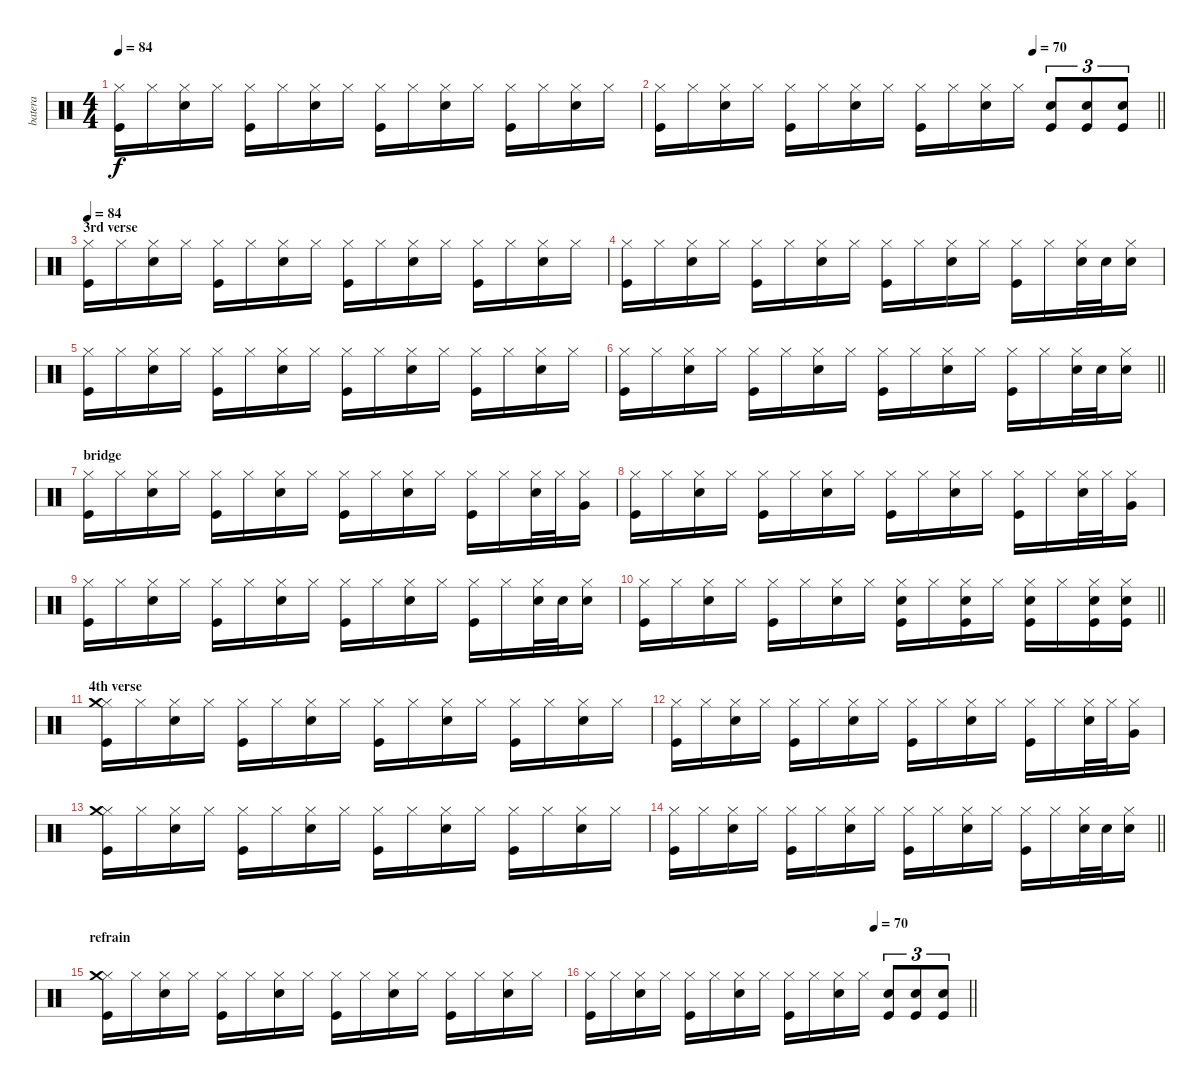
\track ("batera" "batera") {solo instrument percussion}
\staff {score}
\articulation defaults
\ts (4 4)
\tempo 84
\clef neutral
\ks c
("Hi-Hat (closed)" "Kick (hit)").16{dy f} "Hi-Hat (closed)".16 ("Hi-Hat (closed)" "Snare (hit) 2").16 "Hi-Hat (closed)".16 ("Hi-Hat (closed)" "Kick (hit)").16 "Hi-Hat (closed)".16 ("Hi-Hat (closed)" "Snare (hit) 2").16 "Hi-Hat (closed)".16 ("Hi-Hat (closed)" "Kick (hit)").16 "Hi-Hat (closed)".16 ("Hi-Hat (closed)" "Snare (hit) 2").16 "Hi-Hat (closed)".16 ("Hi-Hat (closed)" "Kick (hit)").16 "Hi-Hat (closed)".16 ("Hi-Hat (closed)" "Snare (hit) 2").16 "Hi-Hat (closed)".16 |
\tempo (70 0.75)
\barLineRight lightlight
("Hi-Hat (closed)" "Kick (hit)").16 "Hi-Hat (closed)".16 ("Hi-Hat (closed)" "Snare (hit) 2").16 "Hi-Hat (closed)".16 ("Hi-Hat (closed)" "Kick (hit)").16 "Hi-Hat (closed)".16 ("Hi-Hat (closed)" "Snare (hit) 2").16 "Hi-Hat (closed)".16 ("Hi-Hat (closed)" "Kick (hit)").16 "Hi-Hat (closed)".16 ("Hi-Hat (closed)" "Snare (hit) 2").16 "Hi-Hat (closed)".16 ("Snare (hit) 2" "Kick (hit)").8{tu (3 2)} ("Snare (hit) 2" "Kick (hit)").8{tu (3 2)} ("Snare (hit) 2" "Kick (hit)").8{tu (3 2)} |
\section ("" "3rd verse")
\tempo 84
("Hi-Hat (closed)" "Kick (hit)").16 "Hi-Hat (closed)".16 ("Hi-Hat (closed)" "Snare (hit) 2").16 "Hi-Hat (closed)".16 ("Hi-Hat (closed)" "Kick (hit)").16 "Hi-Hat (closed)".16 ("Hi-Hat (closed)" "Snare (hit) 2").16 "Hi-Hat (closed)".16 ("Hi-Hat (closed)" "Kick (hit)").16 "Hi-Hat (closed)".16 ("Hi-Hat (closed)" "Snare (hit) 2").16 "Hi-Hat (closed)".16 ("Hi-Hat (closed)" "Kick (hit)").16 "Hi-Hat (closed)".16 ("Hi-Hat (closed)" "Snare (hit) 2").16 "Hi-Hat (closed)".16 |
("Hi-Hat (closed)" "Kick (hit)").16 "Hi-Hat (closed)".16 ("Hi-Hat (closed)" "Snare (hit) 2").16 "Hi-Hat (closed)".16 ("Hi-Hat (closed)" "Kick (hit)").16 "Hi-Hat (closed)".16 ("Hi-Hat (closed)" "Snare (hit) 2").16 "Hi-Hat (closed)".16 ("Hi-Hat (closed)" "Kick (hit)").16 "Hi-Hat (closed)".16 ("Hi-Hat (closed)" "Snare (hit) 2").16 "Hi-Hat (closed)".16 ("Hi-Hat (closed)" "Kick (hit)").16 "Hi-Hat (closed)".16 ("Hi-Hat (closed)" "Snare (hit) 2").32 "Snare (hit) 2".32 ("Hi-Hat (closed)" "Snare (hit) 2").16 |
("Hi-Hat (closed)" "Kick (hit)").16 "Hi-Hat (closed)".16 ("Hi-Hat (closed)" "Snare (hit) 2").16 "Hi-Hat (closed)".16 ("Hi-Hat (closed)" "Kick (hit)").16 "Hi-Hat (closed)".16 ("Hi-Hat (closed)" "Snare (hit) 2").16 "Hi-Hat (closed)".16 ("Hi-Hat (closed)" "Kick (hit)").16 "Hi-Hat (closed)".16 ("Hi-Hat (closed)" "Snare (hit) 2").16 "Hi-Hat (closed)".16 ("Hi-Hat (closed)" "Kick (hit)").16 "Hi-Hat (closed)".16 ("Hi-Hat (closed)" "Snare (hit) 2").16 "Hi-Hat (closed)".16 |
\barLineRight lightlight
("Hi-Hat (closed)" "Kick (hit)").16 "Hi-Hat (closed)".16 ("Hi-Hat (closed)" "Snare (hit) 2").16 "Hi-Hat (closed)".16 ("Hi-Hat (closed)" "Kick (hit)").16 "Hi-Hat (closed)".16 ("Hi-Hat (closed)" "Snare (hit) 2").16 "Hi-Hat (closed)".16 ("Hi-Hat (closed)" "Kick (hit)").16 "Hi-Hat (closed)".16 ("Hi-Hat (closed)" "Snare (hit) 2").16 "Hi-Hat (closed)".16 ("Hi-Hat (closed)" "Kick (hit)").16 "Hi-Hat (closed)".16 ("Hi-Hat (closed)" "Snare (hit) 2").32 "Snare (hit) 2".32 ("Hi-Hat (closed)" "Snare (hit) 2").16 |
\section ("" "bridge")
("Hi-Hat (closed)" "Kick (hit)").16 "Hi-Hat (closed)".16 ("Hi-Hat (closed)" "Snare (hit) 2").16 "Hi-Hat (closed)".16 ("Hi-Hat (closed)" "Kick (hit)").16 "Hi-Hat (closed)".16 ("Hi-Hat (closed)" "Snare (hit) 2").16 "Hi-Hat (closed)".16 ("Hi-Hat (closed)" "Kick (hit)").16 "Hi-Hat (closed)".16 ("Hi-Hat (closed)" "Snare (hit) 2").16 "Hi-Hat (closed)".16 ("Hi-Hat (closed)" "Kick (hit)").16 "Hi-Hat (closed)".16 ("Hi-Hat (closed)" "Snare (hit) 2").32 "Hi-Hat (closed)".32 ("Hi-Hat (closed)" "Very Low Tom (hit)").16 |
("Hi-Hat (closed)" "Kick (hit)").16 "Hi-Hat (closed)".16 ("Hi-Hat (closed)" "Snare (hit) 2").16 "Hi-Hat (closed)".16 ("Hi-Hat (closed)" "Kick (hit)").16 "Hi-Hat (closed)".16 ("Hi-Hat (closed)" "Snare (hit) 2").16 "Hi-Hat (closed)".16 ("Hi-Hat (closed)" "Kick (hit)").16 "Hi-Hat (closed)".16 ("Hi-Hat (closed)" "Snare (hit) 2").16 "Hi-Hat (closed)".16 ("Hi-Hat (closed)" "Kick (hit)").16 "Hi-Hat (closed)".16 ("Hi-Hat (closed)" "Snare (hit) 2").32 "Hi-Hat (closed)".32 ("Hi-Hat (closed)" "Very Low Tom (hit)").16 |
("Hi-Hat (closed)" "Kick (hit)").16 "Hi-Hat (closed)".16 ("Hi-Hat (closed)" "Snare (hit) 2").16 "Hi-Hat (closed)".16 ("Hi-Hat (closed)" "Kick (hit)").16 "Hi-Hat (closed)".16 ("Hi-Hat (closed)" "Snare (hit) 2").16 "Hi-Hat (closed)".16 ("Hi-Hat (closed)" "Kick (hit)").16 "Hi-Hat (closed)".16 ("Hi-Hat (closed)" "Snare (hit) 2").16 "Hi-Hat (closed)".16 ("Hi-Hat (closed)" "Kick (hit)").16 "Hi-Hat (closed)".16 ("Hi-Hat (closed)" "Snare (hit) 2").32 "Snare (hit) 2".32 ("Hi-Hat (closed)" "Snare (hit) 2").16 |
\barLineRight lightlight
("Hi-Hat (closed)" "Kick (hit)").16 "Hi-Hat (closed)".16 ("Hi-Hat (closed)" "Snare (hit) 2").16 "Hi-Hat (closed)".16 ("Hi-Hat (closed)" "Kick (hit)").16 "Hi-Hat (closed)".16 ("Hi-Hat (closed)" "Snare (hit) 2").16 "Hi-Hat (closed)".16 ("Hi-Hat (closed)" "Snare (hit) 2" "Kick (hit)").16 "Hi-Hat (closed)".16 ("Hi-Hat (closed)" "Snare (hit) 2" "Kick (hit)").16 "Hi-Hat (closed)".16 ("Hi-Hat (closed)" "Snare (hit) 2" "Kick (hit)").16 "Hi-Hat (closed)".16 ("Hi-Hat (closed)" "Snare (hit) 2" "Kick (hit)").16 ("Hi-Hat (closed)" "Snare (hit) 2" "Kick (hit)").16 |
\section ("" "4th verse")
("Hi-Hat (closed)" "Crash medium (hit)" "Kick (hit)").16 "Hi-Hat (closed)".16 ("Hi-Hat (closed)" "Snare (hit) 2").16 "Hi-Hat (closed)".16 ("Hi-Hat (closed)" "Kick (hit)").16 "Hi-Hat (closed)".16 ("Hi-Hat (closed)" "Snare (hit) 2").16 "Hi-Hat (closed)".16 ("Hi-Hat (closed)" "Kick (hit)").16 "Hi-Hat (closed)".16 ("Hi-Hat (closed)" "Snare (hit) 2").16 "Hi-Hat (closed)".16 ("Hi-Hat (closed)" "Kick (hit)").16 "Hi-Hat (closed)".16 ("Hi-Hat (closed)" "Snare (hit) 2").16 "Hi-Hat (closed)".16 |
("Hi-Hat (closed)" "Kick (hit)").16 "Hi-Hat (closed)".16 ("Hi-Hat (closed)" "Snare (hit) 2").16 "Hi-Hat (closed)".16 ("Hi-Hat (closed)" "Kick (hit)").16 "Hi-Hat (closed)".16 ("Hi-Hat (closed)" "Snare (hit) 2").16 "Hi-Hat (closed)".16 ("Hi-Hat (closed)" "Kick (hit)").16 "Hi-Hat (closed)".16 ("Hi-Hat (closed)" "Snare (hit) 2").16 "Hi-Hat (closed)".16 ("Hi-Hat (closed)" "Kick (hit)").16 "Hi-Hat (closed)".16 ("Hi-Hat (closed)" "Snare (hit) 2").32 "Hi-Hat (closed)".32 ("Hi-Hat (closed)" "Very Low Tom (hit)").16 |
("Hi-Hat (closed)" "Crash medium (hit)" "Kick (hit)").16 "Hi-Hat (closed)".16 ("Hi-Hat (closed)" "Snare (hit) 2").16 "Hi-Hat (closed)".16 ("Hi-Hat (closed)" "Kick (hit)").16 "Hi-Hat (closed)".16 ("Hi-Hat (closed)" "Snare (hit) 2").16 "Hi-Hat (closed)".16 ("Hi-Hat (closed)" "Kick (hit)").16 "Hi-Hat (closed)".16 ("Hi-Hat (closed)" "Snare (hit) 2").16 "Hi-Hat (closed)".16 ("Hi-Hat (closed)" "Kick (hit)").16 "Hi-Hat (closed)".16 ("Hi-Hat (closed)" "Snare (hit) 2").16 "Hi-Hat (closed)".16 |
\barLineRight lightlight
("Hi-Hat (closed)" "Kick (hit)").16 "Hi-Hat (closed)".16 ("Hi-Hat (closed)" "Snare (hit) 2").16 "Hi-Hat (closed)".16 ("Hi-Hat (closed)" "Kick (hit)").16 "Hi-Hat (closed)".16 ("Hi-Hat (closed)" "Snare (hit) 2").16 "Hi-Hat (closed)".16 ("Hi-Hat (closed)" "Kick (hit)").16 "Hi-Hat (closed)".16 ("Hi-Hat (closed)" "Snare (hit) 2").16 "Hi-Hat (closed)".16 ("Hi-Hat (closed)" "Kick (hit)").16 "Hi-Hat (closed)".16 ("Hi-Hat (closed)" "Snare (hit) 2").32 "Snare (hit) 2".32 ("Hi-Hat (closed)" "Snare (hit) 2").16 |
\section ("" "refrain")
("Hi-Hat (closed)" "Crash medium (hit)" "Kick (hit)").16 "Hi-Hat (closed)".16 ("Hi-Hat (closed)" "Snare (hit) 2").16 "Hi-Hat (closed)".16 ("Hi-Hat (closed)" "Kick (hit)").16 "Hi-Hat (closed)".16 ("Hi-Hat (closed)" "Snare (hit) 2").16 "Hi-Hat (closed)".16 ("Hi-Hat (closed)" "Kick (hit)").16 "Hi-Hat (closed)".16 ("Hi-Hat (closed)" "Snare (hit) 2").16 "Hi-Hat (closed)".16 ("Hi-Hat (closed)" "Kick (hit)").16 "Hi-Hat (closed)".16 ("Hi-Hat (closed)" "Snare (hit) 2").16 "Hi-Hat (closed)".16 |
\tempo (70 0.75)
\barLineRight lightlight
("Hi-Hat (closed)" "Kick (hit)").16 "Hi-Hat (closed)".16 ("Hi-Hat (closed)" "Snare (hit) 2").16 "Hi-Hat (closed)".16 ("Hi-Hat (closed)" "Kick (hit)").16 "Hi-Hat (closed)".16 ("Hi-Hat (closed)" "Snare (hit) 2").16 "Hi-Hat (closed)".16 ("Hi-Hat (closed)" "Kick (hit)").16 "Hi-Hat (closed)".16 ("Hi-Hat (closed)" "Snare (hit) 2").16 "Hi-Hat (closed)".16 ("Snare (hit) 2" "Kick (hit)").8{tu (3 2)} ("Snare (hit) 2" "Kick (hit)").8{tu (3 2)} ("Snare (hit) 2" "Kick (hit)").8{tu (3 2)}
